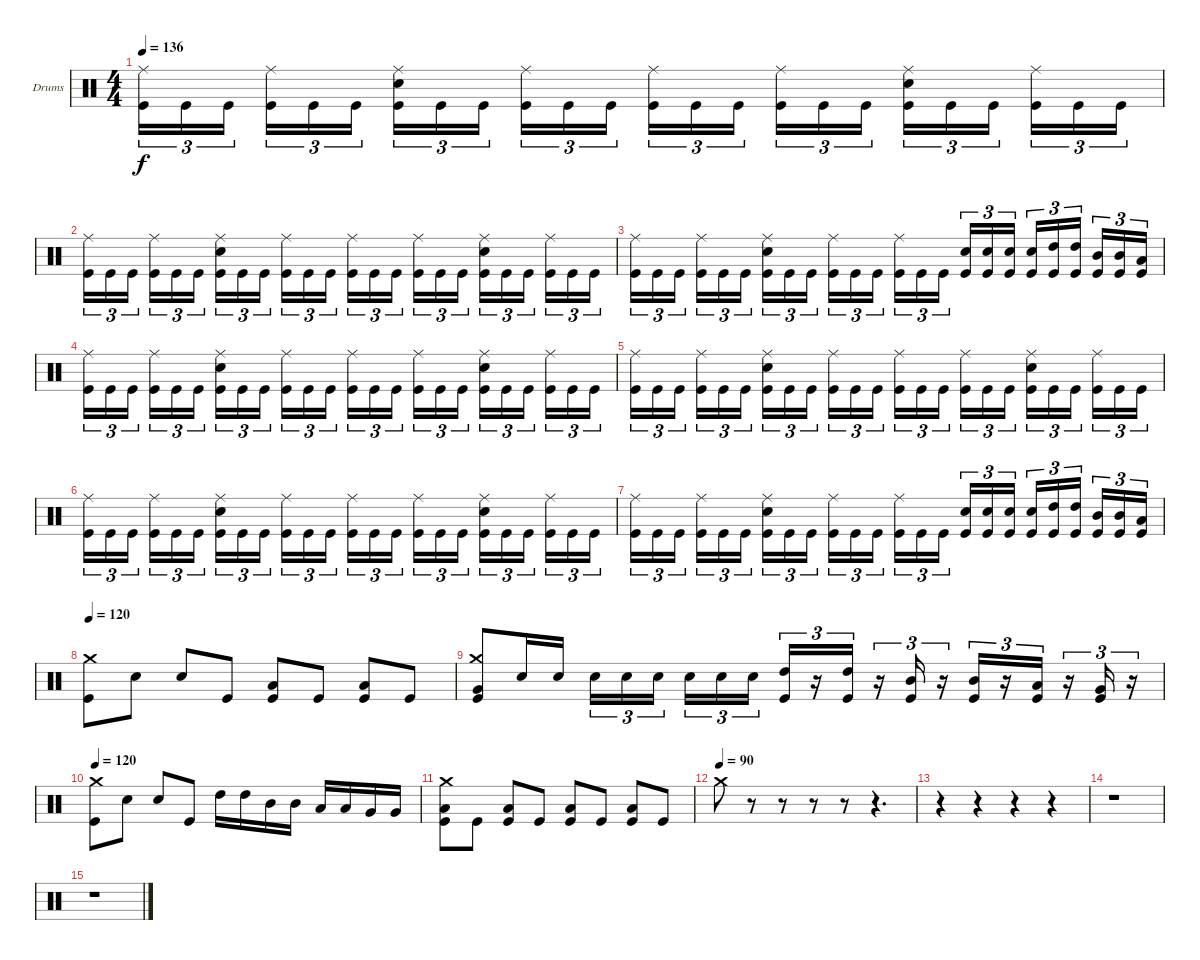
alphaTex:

\bracketExtendMode groupsimilarinstruments
\firstSystemTrackNameOrientation horizontal
\otherSystemsTrackNameOrientation horizontal
\track ("Drumkit" "Drums") {instrument percussion}
\staff {score}
\articulation defaults
\ts (4 4)
\tempo 136
\clef neutral
\ks c
("Ride (middle)" "Kick (hit)").16{tu (3 2) dy f} "Kick (hit)".16{tu (3 2)} "Kick (hit)".16{tu (3 2)} ("Ride (middle)" "Kick (hit)").16{tu (3 2)} "Kick (hit)".16{tu (3 2)} "Kick (hit)".16{tu (3 2)} ("Ride (middle)" "Snare (hit) 2" "Kick (hit)").16{tu (3 2)} "Kick (hit)".16{tu (3 2)} "Kick (hit)".16{tu (3 2)} ("Ride (middle)" "Kick (hit)").16{tu (3 2)} "Kick (hit)".16{tu (3 2)} "Kick (hit)".16{tu (3 2)} ("Ride (middle)" "Kick (hit)").16{tu (3 2)} "Kick (hit)".16{tu (3 2)} "Kick (hit)".16{tu (3 2)} ("Ride (middle)" "Kick (hit)").16{tu (3 2)} "Kick (hit)".16{tu (3 2)} "Kick (hit)".16{tu (3 2)} ("Ride (middle)" "Snare (hit) 2" "Kick (hit)").16{tu (3 2)} "Kick (hit)".16{tu (3 2)} "Kick (hit)".16{tu (3 2)} ("Ride (middle)" "Kick (hit)").16{tu (3 2)} "Kick (hit)".16{tu (3 2)} "Kick (hit)".16{tu (3 2)} |
("Ride (middle)" "Kick (hit)").16{tu (3 2)} "Kick (hit)".16{tu (3 2)} "Kick (hit)".16{tu (3 2)} ("Ride (middle)" "Kick (hit)").16{tu (3 2)} "Kick (hit)".16{tu (3 2)} "Kick (hit)".16{tu (3 2)} ("Ride (middle)" "Snare (hit) 2" "Kick (hit)").16{tu (3 2)} "Kick (hit)".16{tu (3 2)} "Kick (hit)".16{tu (3 2)} ("Ride (middle)" "Kick (hit)").16{tu (3 2)} "Kick (hit)".16{tu (3 2)} "Kick (hit)".16{tu (3 2)} ("Ride (middle)" "Kick (hit)").16{tu (3 2)} "Kick (hit)".16{tu (3 2)} "Kick (hit)".16{tu (3 2)} ("Ride (middle)" "Kick (hit)").16{tu (3 2)} "Kick (hit)".16{tu (3 2)} "Kick (hit)".16{tu (3 2)} ("Ride (middle)" "Snare (hit) 2" "Kick (hit)").16{tu (3 2)} "Kick (hit)".16{tu (3 2)} "Kick (hit)".16{tu (3 2)} ("Ride (middle)" "Kick (hit)").16{tu (3 2)} "Kick (hit)".16{tu (3 2)} "Kick (hit)".16{tu (3 2)} |
("Ride (middle)" "Kick (hit)").16{tu (3 2)} "Kick (hit)".16{tu (3 2)} "Kick (hit)".16{tu (3 2)} ("Ride (middle)" "Kick (hit)").16{tu (3 2)} "Kick (hit)".16{tu (3 2)} "Kick (hit)".16{tu (3 2)} ("Ride (middle)" "Snare (hit) 2" "Kick (hit)").16{tu (3 2)} "Kick (hit)".16{tu (3 2)} "Kick (hit)".16{tu (3 2)} ("Ride (middle)" "Kick (hit)").16{tu (3 2)} "Kick (hit)".16{tu (3 2)} "Kick (hit)".16{tu (3 2)} ("Ride (middle)" "Kick (hit)").16{tu (3 2)} "Kick (hit)".16{tu (3 2)} "Kick (hit)".16{tu (3 2)} ("Snare (hit) 2" "Kick (hit)").16{tu (3 2)} ("Snare (hit) 2" "Kick (hit)").16{tu (3 2)} ("Snare (hit) 2" "Kick (hit)").16{tu (3 2)} ("Snare (hit) 2" "Kick (hit)").16{tu (3 2)} ("High Tom (hit)" "Kick (hit)").16{tu (3 2)} ("High Tom (hit)" "Kick (hit)").16{tu (3 2)} ("Mid Tom (hit)" "Kick (hit)").16{tu (3 2)} ("Mid Tom (hit)" "Kick (hit)").16{tu (3 2)} ("Low Tom (hit)" "Kick (hit)").16{tu (3 2)} |
("Ride (middle)" "Kick (hit)").16{tu (3 2)} "Kick (hit)".16{tu (3 2)} "Kick (hit)".16{tu (3 2)} ("Ride (middle)" "Kick (hit)").16{tu (3 2)} "Kick (hit)".16{tu (3 2)} "Kick (hit)".16{tu (3 2)} ("Ride (middle)" "Snare (hit) 2" "Kick (hit)").16{tu (3 2)} "Kick (hit)".16{tu (3 2)} "Kick (hit)".16{tu (3 2)} ("Ride (middle)" "Kick (hit)").16{tu (3 2)} "Kick (hit)".16{tu (3 2)} "Kick (hit)".16{tu (3 2)} ("Ride (middle)" "Kick (hit)").16{tu (3 2)} "Kick (hit)".16{tu (3 2)} "Kick (hit)".16{tu (3 2)} ("Ride (middle)" "Kick (hit)").16{tu (3 2)} "Kick (hit)".16{tu (3 2)} "Kick (hit)".16{tu (3 2)} ("Ride (middle)" "Snare (hit) 2" "Kick (hit)").16{tu (3 2)} "Kick (hit)".16{tu (3 2)} "Kick (hit)".16{tu (3 2)} ("Ride (middle)" "Kick (hit)").16{tu (3 2)} "Kick (hit)".16{tu (3 2)} "Kick (hit)".16{tu (3 2)} |
("Ride (middle)" "Kick (hit)").16{tu (3 2)} "Kick (hit)".16{tu (3 2)} "Kick (hit)".16{tu (3 2)} ("Ride (middle)" "Kick (hit)").16{tu (3 2)} "Kick (hit)".16{tu (3 2)} "Kick (hit)".16{tu (3 2)} ("Ride (middle)" "Snare (hit) 2" "Kick (hit)").16{tu (3 2)} "Kick (hit)".16{tu (3 2)} "Kick (hit)".16{tu (3 2)} ("Ride (middle)" "Kick (hit)").16{tu (3 2)} "Kick (hit)".16{tu (3 2)} "Kick (hit)".16{tu (3 2)} ("Ride (middle)" "Kick (hit)").16{tu (3 2)} "Kick (hit)".16{tu (3 2)} "Kick (hit)".16{tu (3 2)} ("Ride (middle)" "Kick (hit)").16{tu (3 2)} "Kick (hit)".16{tu (3 2)} "Kick (hit)".16{tu (3 2)} ("Ride (middle)" "Snare (hit) 2" "Kick (hit)").16{tu (3 2)} "Kick (hit)".16{tu (3 2)} "Kick (hit)".16{tu (3 2)} ("Ride (middle)" "Kick (hit)").16{tu (3 2)} "Kick (hit)".16{tu (3 2)} "Kick (hit)".16{tu (3 2)} |
("Ride (middle)" "Kick (hit)").16{tu (3 2)} "Kick (hit)".16{tu (3 2)} "Kick (hit)".16{tu (3 2)} ("Ride (middle)" "Kick (hit)").16{tu (3 2)} "Kick (hit)".16{tu (3 2)} "Kick (hit)".16{tu (3 2)} ("Ride (middle)" "Snare (hit) 2" "Kick (hit)").16{tu (3 2)} "Kick (hit)".16{tu (3 2)} "Kick (hit)".16{tu (3 2)} ("Ride (middle)" "Kick (hit)").16{tu (3 2)} "Kick (hit)".16{tu (3 2)} "Kick (hit)".16{tu (3 2)} ("Ride (middle)" "Kick (hit)").16{tu (3 2)} "Kick (hit)".16{tu (3 2)} "Kick (hit)".16{tu (3 2)} ("Ride (middle)" "Kick (hit)").16{tu (3 2)} "Kick (hit)".16{tu (3 2)} "Kick (hit)".16{tu (3 2)} ("Ride (middle)" "Snare (hit) 2" "Kick (hit)").16{tu (3 2)} "Kick (hit)".16{tu (3 2)} "Kick (hit)".16{tu (3 2)} ("Ride (middle)" "Kick (hit)").16{tu (3 2)} "Kick (hit)".16{tu (3 2)} "Kick (hit)".16{tu (3 2)} |
("Ride (middle)" "Kick (hit)").16{tu (3 2)} "Kick (hit)".16{tu (3 2)} "Kick (hit)".16{tu (3 2)} ("Ride (middle)" "Kick (hit)").16{tu (3 2)} "Kick (hit)".16{tu (3 2)} "Kick (hit)".16{tu (3 2)} ("Ride (middle)" "Snare (hit) 2" "Kick (hit)").16{tu (3 2)} "Kick (hit)".16{tu (3 2)} "Kick (hit)".16{tu (3 2)} ("Ride (middle)" "Kick (hit)").16{tu (3 2)} "Kick (hit)".16{tu (3 2)} "Kick (hit)".16{tu (3 2)} ("Ride (middle)" "Kick (hit)").16{tu (3 2)} "Kick (hit)".16{tu (3 2)} "Kick (hit)".16{tu (3 2)} ("Snare (hit) 2" "Kick (hit)").16{tu (3 2)} ("Snare (hit) 2" "Kick (hit)").16{tu (3 2)} ("Snare (hit) 2" "Kick (hit)").16{tu (3 2)} ("Snare (hit) 2" "Kick (hit)").16{tu (3 2)} ("High Tom (hit)" "Kick (hit)").16{tu (3 2)} ("High Tom (hit)" "Kick (hit)").16{tu (3 2)} ("Mid Tom (hit)" "Kick (hit)").16{tu (3 2)} ("Mid Tom (hit)" "Kick (hit)").16{tu (3 2)} ("Low Tom (hit)" "Kick (hit)").16{tu (3 2)} |
\tempo 120
("Crash medium (hit)" "Kick (hit)").8 "Snare (hit) 2".8 "Snare (hit) 2".8 "Kick (hit)".8 ("Low Tom (hit)" "Kick (hit)").8 "Kick (hit)".8 ("Low Tom (hit)" "Kick (hit)").8 "Kick (hit)".8 |
("Crash medium (hit)" "Very Low Tom (hit)" "Kick (hit)").8 "Snare (hit) 2".16 "Snare (hit) 2".16 "Snare (hit) 2".16{tu (3 2)} "Snare (hit) 2".16{tu (3 2)} "Snare (hit) 2".16{tu (3 2)} "Snare (hit) 2".16{tu (3 2)} "Snare (hit) 2".16{tu (3 2)} "Snare (hit) 2".16{tu (3 2)} ("High Tom (hit)" "Kick (hit)").16{tu (3 2)} r.16{tu (3 2)} ("High Tom (hit)" "Kick (hit)").16{tu (3 2)} r.16{tu (3 2)} ("Mid Tom (hit)" "Kick (hit)").16{tu (3 2)} r.16{tu (3 2)} ("Mid Tom (hit)" "Kick (hit)").16{tu (3 2)} r.16{tu (3 2)} ("Low Tom (hit)" "Kick (hit)").16{tu (3 2)} r.16{tu (3 2)} ("Very Low Tom (hit)" "Kick (hit)").16{tu (3 2)} r.16{tu (3 2)} |
\tempo 120
("Crash medium (hit)" "Kick (hit)").8 "Snare (hit) 2".8 "Snare (hit) 2".8 "Kick (hit)".8 "High Tom (hit)".16 "High Tom (hit)".16 "Mid Tom (hit)".16 "Mid Tom (hit)".16 "Low Tom (hit)".16 "Low Tom (hit)".16 "Very Low Tom (hit)".16 "Very Low Tom (hit)".16 |
("Crash medium (hit)" "Low Tom (hit)" "Kick (hit)").8 "Kick (hit)".8 ("Low Tom (hit)" "Kick (hit)").8 "Kick (hit)".8 ("Low Tom (hit)" "Kick (hit)").8 "Kick (hit)".8 ("Low Tom (hit)" "Kick (hit)").8 "Kick (hit)".8 |
\tempo (90)
"Crash medium (hit)".8 r.8 r.8 r.8 r.8 r.4{d} |
r.4 r.4 r.4 r.4 |
r.1 |
r.1
